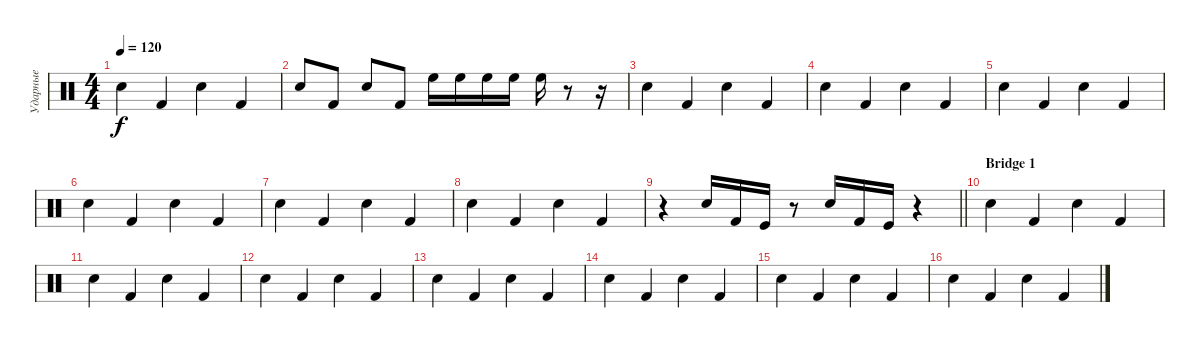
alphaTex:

\track ("Ударные" "Ударные") {instrument percussion}
\staff {score}
\articulation defaults
\ts (4 4)
\tempo 120
\clef neutral
\ks c "Electric Snare (hit)".4{dy f} "Kick (hit) 2".4 "Electric Snare (hit)".4 "Kick (hit) 2".4
|
"Electric Snare (hit)".8 "Kick (hit) 2".8 "Electric Snare (hit)".8 "Kick (hit) 2".8 "High Floor Tom (hit)".16 "High Floor Tom (hit)".16 "High Floor Tom (hit)".16 "High Floor Tom (hit)".16 "High Floor Tom (hit)".16 r.8 r.16 |
"Electric Snare (hit)".4 "Kick (hit) 2".4 "Electric Snare (hit)".4 "Kick (hit) 2".4 |
"Electric Snare (hit)".4 "Kick (hit) 2".4 "Electric Snare (hit)".4 "Kick (hit) 2".4 |
"Electric Snare (hit)".4 "Kick (hit) 2".4 "Electric Snare (hit)".4 "Kick (hit) 2".4 |
"Electric Snare (hit)".4 "Kick (hit) 2".4 "Electric Snare (hit)".4 "Kick (hit) 2".4 |
"Electric Snare (hit)".4 "Kick (hit) 2".4 "Electric Snare (hit)".4 "Kick (hit) 2".4 |
"Electric Snare (hit)".4 "Kick (hit) 2".4 "Electric Snare (hit)".4 "Kick (hit) 2".4 |
\barLineRight lightlight
r.4 "Electric Snare (hit)".16 "Kick (hit) 2".16 "Kick (hit)".16 r.8 "Electric Snare (hit)".16 "Kick (hit) 2".16 "Kick (hit)".16 r.4 |
\section ("" "Bridge 1")
"Electric Snare (hit)".4 "Kick (hit) 2".4 "Electric Snare (hit)".4 "Kick (hit) 2".4 |
"Electric Snare (hit)".4 "Kick (hit) 2".4 "Electric Snare (hit)".4 "Kick (hit) 2".4 |
"Electric Snare (hit)".4 "Kick (hit) 2".4 "Electric Snare (hit)".4 "Kick (hit) 2".4 |
"Electric Snare (hit)".4 "Kick (hit) 2".4 "Electric Snare (hit)".4 "Kick (hit) 2".4 |
"Electric Snare (hit)".4 "Kick (hit) 2".4 "Electric Snare (hit)".4 "Kick (hit) 2".4 |
"Electric Snare (hit)".4 "Kick (hit) 2".4 "Electric Snare (hit)".4 "Kick (hit) 2".4 |
"Electric Snare (hit)".4 "Kick (hit) 2".4 "Electric Snare (hit)".4 "Kick (hit) 2".4
